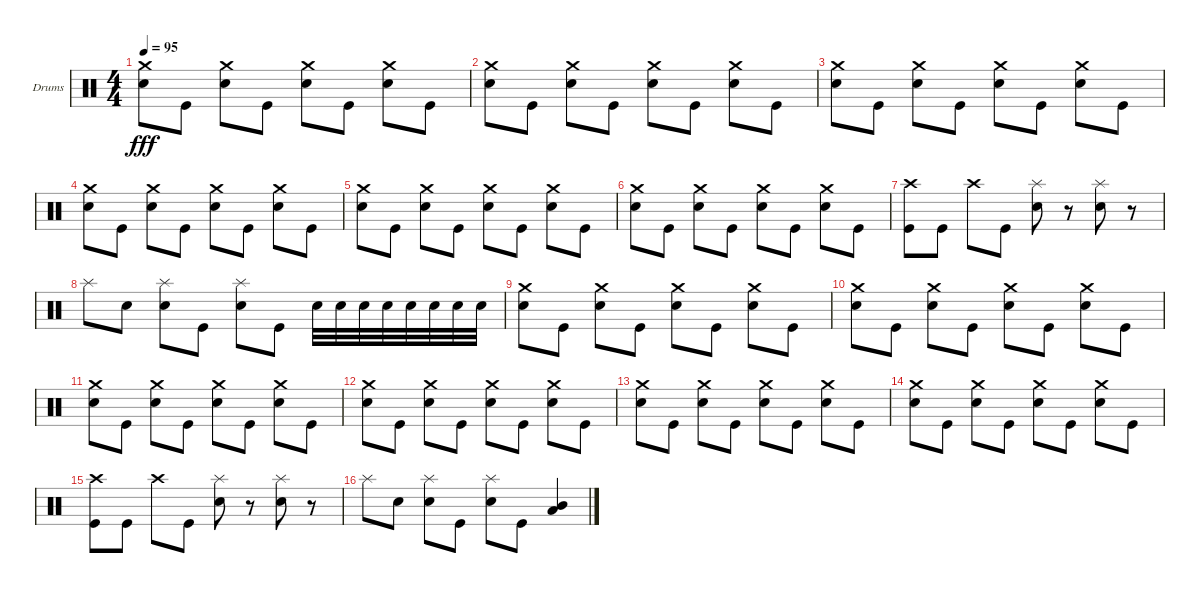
\bracketExtendMode groupsimilarinstruments
\firstSystemTrackNameOrientation horizontal
\otherSystemsTrackNameOrientation horizontal
\track ("Drumkit" "Drums") {instrument percussion}
\staff {score}
\articulation defaults
\ts (4 4)
\tempo 95
\clef neutral
\ks c
("Crash medium (hit)" "Snare (hit) 2").8{dy fff} "Kick (hit)".8 ("Crash medium (hit)" "Snare (hit) 2").8 "Kick (hit)".8 ("Crash medium (hit)" "Snare (hit) 2").8 "Kick (hit)".8 ("Crash medium (hit)" "Snare (hit) 2").8 "Kick (hit)".8 |
("Crash medium (hit)" "Snare (hit) 2").8 "Kick (hit)".8 ("Crash medium (hit)" "Snare (hit) 2").8 "Kick (hit)".8 ("Crash medium (hit)" "Snare (hit) 2").8 "Kick (hit)".8 ("Crash medium (hit)" "Snare (hit) 2").8 "Kick (hit)".8 |
("Crash medium (hit)" "Snare (hit) 2").8 "Kick (hit)".8 ("Crash medium (hit)" "Snare (hit) 2").8 "Kick (hit)".8 ("Crash medium (hit)" "Snare (hit) 2").8 "Kick (hit)".8 ("Crash medium (hit)" "Snare (hit) 2").8 "Kick (hit)".8 |
("Crash medium (hit)" "Snare (hit) 2").8 "Kick (hit)".8 ("Crash medium (hit)" "Snare (hit) 2").8 "Kick (hit)".8 ("Crash medium (hit)" "Snare (hit) 2").8 "Kick (hit)".8 ("Crash medium (hit)" "Snare (hit) 2").8 "Kick (hit)".8 |
("Crash medium (hit)" "Snare (hit) 2").8 "Kick (hit)".8 ("Crash medium (hit)" "Snare (hit) 2").8 "Kick (hit)".8 ("Crash medium (hit)" "Snare (hit) 2").8 "Kick (hit)".8 ("Crash medium (hit)" "Snare (hit) 2").8 "Kick (hit)".8 |
("Crash medium (hit)" "Snare (hit) 2").8 "Kick (hit)".8 ("Crash medium (hit)" "Snare (hit) 2").8 "Kick (hit)".8 ("Crash medium (hit)" "Snare (hit) 2").8 "Kick (hit)".8 ("Crash medium (hit)" "Snare (hit) 2").8 "Kick (hit)".8 |
("Crash high (hit)" "Kick (hit)").8 "Kick (hit)".8 "Crash high (hit)".8 "Kick (hit)".8 ("Splash (hit)" "Snare (hit) 2").8 r.8 ("Splash (hit)" "Snare (hit) 2").8 r.8 |
"Splash (hit)".8 "Snare (hit) 2".8 ("Splash (hit)" "Snare (hit) 2").8 "Kick (hit)".8 ("Splash (hit)" "Snare (hit) 2").8 "Kick (hit)".8 "Snare (hit) 2".32 "Snare (hit) 2".32 "Snare (hit) 2".32 "Snare (hit) 2".32 "Snare (hit) 2".32 "Snare (hit) 2".32 "Snare (hit) 2".32 "Snare (hit) 2".32 |
("Crash medium (hit)" "Snare (hit) 2").8 "Kick (hit)".8 ("Crash medium (hit)" "Snare (hit) 2").8 "Kick (hit)".8 ("Crash medium (hit)" "Snare (hit) 2").8 "Kick (hit)".8 ("Crash medium (hit)" "Snare (hit) 2").8 "Kick (hit)".8 |
("Crash medium (hit)" "Snare (hit) 2").8 "Kick (hit)".8 ("Crash medium (hit)" "Snare (hit) 2").8 "Kick (hit)".8 ("Crash medium (hit)" "Snare (hit) 2").8 "Kick (hit)".8 ("Crash medium (hit)" "Snare (hit) 2").8 "Kick (hit)".8 |
("Crash medium (hit)" "Snare (hit) 2").8 "Kick (hit)".8 ("Crash medium (hit)" "Snare (hit) 2").8 "Kick (hit)".8 ("Crash medium (hit)" "Snare (hit) 2").8 "Kick (hit)".8 ("Crash medium (hit)" "Snare (hit) 2").8 "Kick (hit)".8 |
("Crash medium (hit)" "Snare (hit) 2").8 "Kick (hit)".8 ("Crash medium (hit)" "Snare (hit) 2").8 "Kick (hit)".8 ("Crash medium (hit)" "Snare (hit) 2").8 "Kick (hit)".8 ("Crash medium (hit)" "Snare (hit) 2").8 "Kick (hit)".8 |
("Crash medium (hit)" "Snare (hit) 2").8 "Kick (hit)".8 ("Crash medium (hit)" "Snare (hit) 2").8 "Kick (hit)".8 ("Crash medium (hit)" "Snare (hit) 2").8 "Kick (hit)".8 ("Crash medium (hit)" "Snare (hit) 2").8 "Kick (hit)".8 |
("Crash medium (hit)" "Snare (hit) 2").8 "Kick (hit)".8 ("Crash medium (hit)" "Snare (hit) 2").8 "Kick (hit)".8 ("Crash medium (hit)" "Snare (hit) 2").8 "Kick (hit)".8 ("Crash medium (hit)" "Snare (hit) 2").8 "Kick (hit)".8 |
("Crash high (hit)" "Kick (hit)").8 "Kick (hit)".8 "Crash high (hit)".8 "Kick (hit)".8 ("Splash (hit)" "Snare (hit) 2").8 r.8 ("Splash (hit)" "Snare (hit) 2").8 r.8 |
"Splash (hit)".8 "Snare (hit) 2".8 ("Splash (hit)" "Snare (hit) 2").8 "Kick (hit)".8 ("Splash (hit)" "Snare (hit) 2").8 "Kick (hit)".8 ("Low Tom (hit)" "Mid Tom (hit)").4
